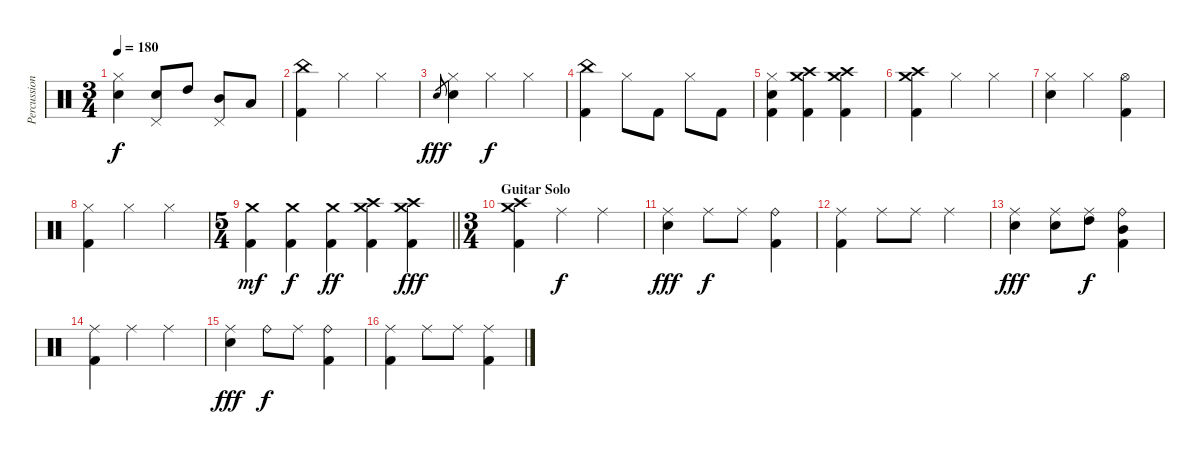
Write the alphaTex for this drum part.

\track ("Percussion" "Percussion") {instrument percussion}
\staff {score}
\articulation defaults
\ts (3 4)
\tempo 180
\clef neutral
\ks c
("Hi-Hat (closed)" "Electric Snare (hit)").4{dy f} ("Pedal Hi-Hat (hit)" "Electric Snare (hit)").8 "High Tom (hit)".8 ("Pedal Hi-Hat (hit)" "Mid Tom (hit)").8 "Low Tom (hit)".8 |
("China (hit)" "Kick (hit) 2").4 "Hi-Hat (closed)".4 "Hi-Hat (closed)".4 |
"Electric Snare (hit)".8{gr dy fff} ("Hi-Hat (closed)" "Electric Snare (hit)").4 "Hi-Hat (closed)".4{dy f} "Hi-Hat (closed)".4 |
("China (hit)" "Kick (hit) 2").4 "Hi-Hat (closed)".8 "Kick (hit) 2".8 "Hi-Hat (closed)".8 "Kick (hit) 2".8 |
("Hi-Hat (closed)" "Electric Snare (hit)" "Kick (hit) 2").4 ("Crash medium (hit)" "Crash high (hit)" "Kick (hit) 2").4 ("Crash medium (hit)" "Crash high (hit)" "Kick (hit) 2").4 |
("Crash medium (hit)" "Crash high (hit)" "Kick (hit) 2").4 "Hi-Hat (closed)".4 "Hi-Hat (closed)".4 |
("Hi-Hat (closed)" "Electric Snare (hit)").4 "Hi-Hat (closed)".4 ("Hi-Hat (open)" "Kick (hit) 2").4 |
("Hi-Hat (closed)" "Kick (hit) 2").4 "Hi-Hat (closed)".4 "Hi-Hat (closed)".4 |
\ts (5 4)
\barLineRight lightlight
("Crash medium (hit)" "Kick (hit) 2").4{dy mf} ("Crash medium (hit)" "Kick (hit) 2").4{dy f} ("Crash medium (hit)" "Kick (hit) 2").4{dy ff} ("Crash medium (hit)" "Crash high (hit)" "Kick (hit) 2").4 ("Crash medium (hit)" "Crash high (hit)" "Kick (hit) 2").4{dy fff} |
\ts (3 4)
\section ("" "Guitar Solo")
("Crash medium (hit)" "Crash high (hit)" "Kick (hit) 2").4 "Ride (middle)".4{dy f} "Ride (middle)".4 |
("Ride (middle)" "Electric Snare (hit)").4{dy fff} "Ride (middle)".8{dy f} "Ride (middle)".8 ("Ride (bell)" "Kick (hit) 2").4 |
("Ride (middle)" "Kick (hit) 2").4 "Ride (middle)".8 "Ride (middle)".8 "Ride (middle)".4 |
("Ride (middle)" "Electric Snare (hit)").4{dy fff} ("Ride (middle)" "Electric Snare (hit)").8 ("Ride (middle)" "High Tom (hit)").8{dy f} ("Ride (bell)" "Mid Tom (hit)" "Kick (hit) 2").4 |
("Ride (middle)" "Kick (hit) 2").4 "Ride (middle)".4 "Ride (middle)".4 |
("Ride (middle)" "Electric Snare (hit)").4{dy fff} "Ride (bell)".8{dy f} "Ride (middle)".8 ("Ride (bell)" "Kick (hit) 2").4 |
("Ride (middle)" "Kick (hit) 2").4 "Ride (middle)".8 "Ride (middle)".8 ("Ride (middle)" "Kick (hit) 2").4
